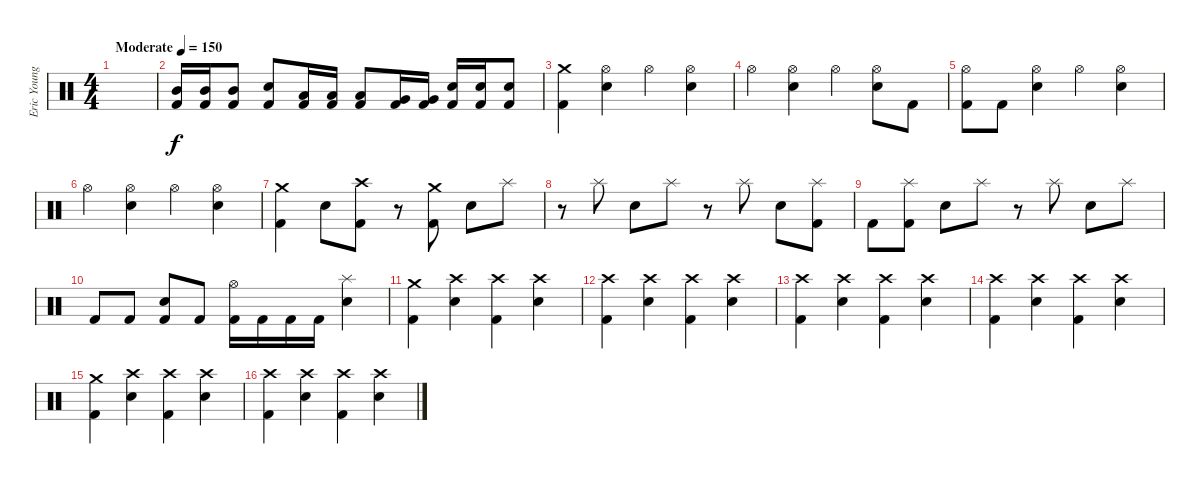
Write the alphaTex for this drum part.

\track ("Eric Young" "Eric Young") {instrument percussion}
\staff {score}
\articulation defaults
\ts (4 4)
\tempo (150 "Moderate")
\clef neutral
\ks c
|
("Mid Tom (hit)" "Kick (hit) 2").16 ("Mid Tom (hit)" "Kick (hit) 2").16 ("Mid Tom (hit)" "Kick (hit) 2").8 ("Snare (hit) 2" "Kick (hit) 2").8 ("Low Tom (hit)" "Kick (hit) 2").16 ("Low Tom (hit)" "Kick (hit) 2").16 ("Low Tom (hit)" "Kick (hit) 2").8 ("Very Low Tom (hit)" "Kick (hit) 2").16 ("Very Low Tom (hit)" "Kick (hit) 2").16 ("Snare (hit) 2" "Kick (hit) 2").16 ("Snare (hit) 2" "Kick (hit) 2").16 ("Snare (hit) 2" "Kick (hit) 2").8 |
("Crash medium (hit)" "Kick (hit) 2").4 ("Hi-Hat (open)" "Electric Snare (hit)").4 "Hi-Hat (open)".4 ("Hi-Hat (open)" "Electric Snare (hit)").4 |
"Hi-Hat (open)".4 ("Hi-Hat (open)" "Electric Snare (hit)").4 "Hi-Hat (open)".4 ("Hi-Hat (open)" "Electric Snare (hit)").8 "Kick (hit) 2".8 |
("Hi-Hat (open)" "Kick (hit) 2").8 "Kick (hit) 2".8 ("Hi-Hat (open)" "Electric Snare (hit)").4 "Hi-Hat (open)".4 ("Hi-Hat (open)" "Electric Snare (hit)").4 |
"Hi-Hat (open)".4 ("Hi-Hat (open)" "Electric Snare (hit)").4 "Hi-Hat (open)".4 ("Hi-Hat (open)" "Electric Snare (hit)").4 |
("Crash medium (hit)" "Kick (hit) 2").4 "Electric Snare (hit)".8 ("Crash high (hit)" "Kick (hit) 2").8 r.8 ("Crash medium (hit)" "Kick (hit) 2").8 "Electric Snare (hit)".8 "Splash (hit)".8 |
r.8 "Splash (hit)".8 "Electric Snare (hit)".8 "Splash (hit)".8 r.8 "Splash (hit)".8 "Electric Snare (hit)".8 ("Splash (hit)" "Kick (hit) 2").8 |
"Kick (hit) 2".8 ("Splash (hit)" "Kick (hit) 2").8 "Electric Snare (hit)".8 "Splash (hit)".8 r.8 "Splash (hit)".8 "Electric Snare (hit)".8 "Splash (hit)".8 |
"Kick (hit) 2".8 "Kick (hit) 2".8 ("Electric Snare (hit)" "Kick (hit) 2").8 "Kick (hit) 2".8 ("Hi-Hat (open)" "Kick (hit) 2").16 "Kick (hit) 2".16 "Kick (hit) 2".16 "Kick (hit) 2".16 ("Splash (hit)" "Electric Snare (hit)").4 |
("Crash medium (hit)" "Kick (hit) 2").4 ("Crash high (hit)" "Electric Snare (hit)").4 ("Crash high (hit)" "Kick (hit) 2").4 ("Crash high (hit)" "Electric Snare (hit)").4 |
("Crash high (hit)" "Kick (hit) 2").4 ("Crash high (hit)" "Electric Snare (hit)").4 ("Crash high (hit)" "Kick (hit) 2").4 ("Crash high (hit)" "Electric Snare (hit)").4 |
("Crash high (hit)" "Kick (hit) 2").4 ("Crash high (hit)" "Electric Snare (hit)").4 ("Crash high (hit)" "Kick (hit) 2").4 ("Crash high (hit)" "Electric Snare (hit)").4 |
("Crash high (hit)" "Kick (hit) 2").4 ("Crash high (hit)" "Electric Snare (hit)").4 ("Crash high (hit)" "Kick (hit) 2").4 ("Crash high (hit)" "Electric Snare (hit)").4 |
("Crash medium (hit)" "Kick (hit) 2").4 ("Crash high (hit)" "Electric Snare (hit)").4 ("Crash high (hit)" "Kick (hit) 2").4 ("Crash high (hit)" "Electric Snare (hit)").4 |
("Crash high (hit)" "Kick (hit) 2").4 ("Crash high (hit)" "Electric Snare (hit)").4 ("Crash high (hit)" "Kick (hit) 2").4 ("Crash high (hit)" "Electric Snare (hit)").4
